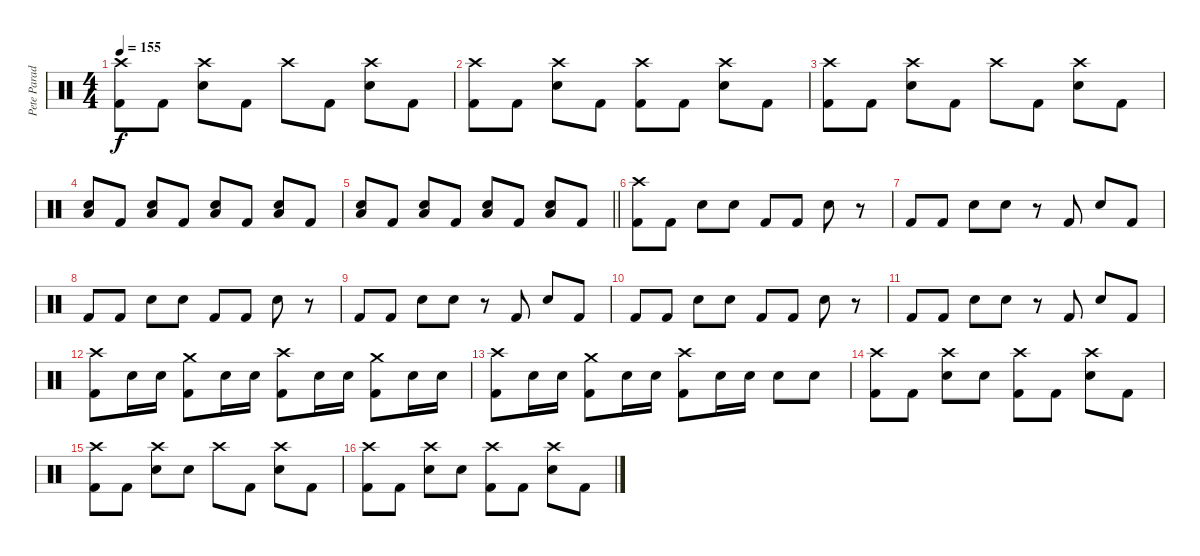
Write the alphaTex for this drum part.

\track ("Pete Parada - Drums" "Pete Parad") {instrument percussion}
\staff {score}
\articulation defaults
\ts (4 4)
\tempo 155
\clef neutral
\ks c
("Crash high (hit)" "Kick (hit) 2").8{dy f} "Kick (hit) 2".8 ("Crash high (hit)" "Electric Snare (hit)").8 "Kick (hit) 2".8 "Crash high (hit)".8 "Kick (hit) 2".8 ("Crash high (hit)" "Electric Snare (hit)").8 "Kick (hit) 2".8 |
("Crash high (hit)" "Kick (hit) 2").8 "Kick (hit) 2".8 ("Crash high (hit)" "Electric Snare (hit)").8 "Kick (hit) 2".8 ("Crash high (hit)" "Kick (hit) 2").8 "Kick (hit) 2".8 ("Crash high (hit)" "Electric Snare (hit)").8 "Kick (hit) 2".8 |
("Crash high (hit)" "Kick (hit) 2").8 "Kick (hit) 2".8 ("Crash high (hit)" "Electric Snare (hit)").8 "Kick (hit) 2".8 "Crash high (hit)".8 "Kick (hit) 2".8 ("Crash high (hit)" "Electric Snare (hit)").8 "Kick (hit) 2".8 |
("Electric Snare (hit)" "Low Floor Tom (hit)").8 "Kick (hit) 2".8 ("Electric Snare (hit)" "Low Floor Tom (hit)").8 "Kick (hit) 2".8 ("Electric Snare (hit)" "Low Floor Tom (hit)").8 "Kick (hit) 2".8 ("Electric Snare (hit)" "Low Floor Tom (hit)").8 "Kick (hit) 2".8 |
\barLineRight lightlight
("Electric Snare (hit)" "Low Floor Tom (hit)").8 "Kick (hit) 2".8 ("Electric Snare (hit)" "Low Floor Tom (hit)").8 "Kick (hit) 2".8 ("Electric Snare (hit)" "Low Floor Tom (hit)").8 "Kick (hit) 2".8 ("Electric Snare (hit)" "Low Floor Tom (hit)").8 "Kick (hit) 2".8 |
("Crash high (hit)" "Kick (hit) 2").8 "Kick (hit) 2".8 "Electric Snare (hit)".8 "Electric Snare (hit)".8 "Kick (hit) 2".8 "Kick (hit) 2".8 "Electric Snare (hit)".8 r.8 |
"Kick (hit) 2".8 "Kick (hit) 2".8 "Electric Snare (hit)".8 "Electric Snare (hit)".8 r.8 "Kick (hit) 2".8 "Electric Snare (hit)".8 "Kick (hit) 2".8 |
"Kick (hit) 2".8 "Kick (hit) 2".8 "Electric Snare (hit)".8 "Electric Snare (hit)".8 "Kick (hit) 2".8 "Kick (hit) 2".8 "Electric Snare (hit)".8 r.8 |
"Kick (hit) 2".8 "Kick (hit) 2".8 "Electric Snare (hit)".8 "Electric Snare (hit)".8 r.8 "Kick (hit) 2".8 "Electric Snare (hit)".8 "Kick (hit) 2".8 |
"Kick (hit) 2".8 "Kick (hit) 2".8 "Electric Snare (hit)".8 "Electric Snare (hit)".8 "Kick (hit) 2".8 "Kick (hit) 2".8 "Electric Snare (hit)".8 r.8 |
"Kick (hit) 2".8 "Kick (hit) 2".8 "Electric Snare (hit)".8 "Electric Snare (hit)".8 r.8 "Kick (hit) 2".8 "Electric Snare (hit)".8 "Kick (hit) 2".8 |
("Crash high (hit)" "Kick (hit) 2").8 "Electric Snare (hit)".16 "Electric Snare (hit)".16 ("Crash medium (hit)" "Kick (hit) 2").8 "Electric Snare (hit)".16 "Electric Snare (hit)".16 ("Crash high (hit)" "Kick (hit) 2").8 "Electric Snare (hit)".16 "Electric Snare (hit)".16 ("Crash medium (hit)" "Kick (hit) 2").8 "Electric Snare (hit)".16 "Electric Snare (hit)".16 |
("Crash high (hit)" "Kick (hit) 2").8 "Electric Snare (hit)".16 "Electric Snare (hit)".16 ("Crash medium (hit)" "Kick (hit) 2").8 "Electric Snare (hit)".16 "Electric Snare (hit)".16 ("Crash high (hit)" "Kick (hit) 2").8 "Electric Snare (hit)".16 "Electric Snare (hit)".16 "Electric Snare (hit)".8 "Electric Snare (hit)".8 |
("Crash high (hit)" "Kick (hit) 2").8 "Kick (hit) 2".8 ("Crash high (hit)" "Electric Snare (hit)").8 "Electric Snare (hit)".8 ("Crash high (hit)" "Kick (hit) 2").8 "Kick (hit) 2".8 ("Crash high (hit)" "Electric Snare (hit)").8 "Kick (hit) 2".8 |
("Crash high (hit)" "Kick (hit) 2").8 "Kick (hit) 2".8 ("Crash high (hit)" "Electric Snare (hit)").8 "Electric Snare (hit)".8 "Crash high (hit)".8 "Kick (hit) 2".8 ("Crash high (hit)" "Electric Snare (hit)").8 "Kick (hit) 2".8 |
("Crash high (hit)" "Kick (hit) 2").8 "Kick (hit) 2".8 ("Crash high (hit)" "Electric Snare (hit)").8 "Electric Snare (hit)".8 ("Crash high (hit)" "Kick (hit) 2").8 "Kick (hit) 2".8 ("Crash high (hit)" "Electric Snare (hit)").8 "Kick (hit) 2".8
